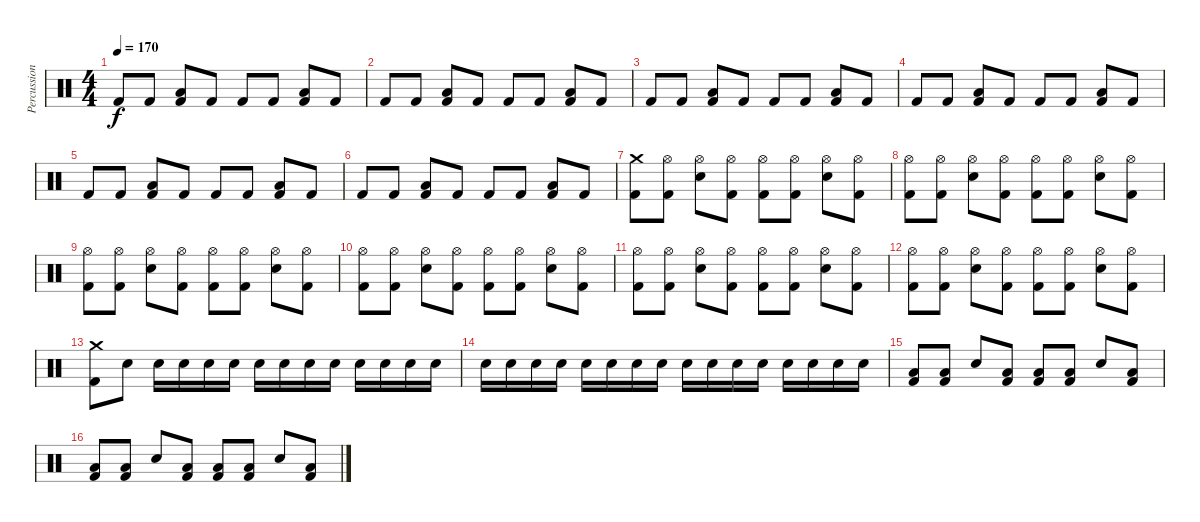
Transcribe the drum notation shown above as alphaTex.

\track ("Percussion" "Percussion") {instrument percussion}
\staff {score}
\articulation defaults
\ts (4 4)
\tempo 170
\clef neutral
\ks c "Kick (hit) 2".8{dy f} "Kick (hit) 2".8
("Low Floor Tom (hit)" "Kick (hit) 2").8 "Kick (hit) 2".8 "Kick (hit) 2".8 "Kick (hit) 2".8 ("Low Floor Tom (hit)" "Kick (hit) 2").8 "Kick (hit) 2".8 |
"Kick (hit) 2".8 "Kick (hit) 2".8 ("Low Floor Tom (hit)" "Kick (hit) 2").8 "Kick (hit) 2".8 "Kick (hit) 2".8 "Kick (hit) 2".8 ("Low Floor Tom (hit)" "Kick (hit) 2").8 "Kick (hit) 2".8 |
"Kick (hit) 2".8 "Kick (hit) 2".8 ("Low Floor Tom (hit)" "Kick (hit) 2").8 "Kick (hit) 2".8 "Kick (hit) 2".8 "Kick (hit) 2".8 ("Low Floor Tom (hit)" "Kick (hit) 2").8 "Kick (hit) 2".8 |
"Kick (hit) 2".8 "Kick (hit) 2".8 ("Low Floor Tom (hit)" "Kick (hit) 2").8 "Kick (hit) 2".8 "Kick (hit) 2".8 "Kick (hit) 2".8 ("Low Floor Tom (hit)" "Kick (hit) 2").8 "Kick (hit) 2".8 |
"Kick (hit) 2".8 "Kick (hit) 2".8 ("Low Floor Tom (hit)" "Kick (hit) 2").8 "Kick (hit) 2".8 "Kick (hit) 2".8 "Kick (hit) 2".8 ("Low Floor Tom (hit)" "Kick (hit) 2").8 "Kick (hit) 2".8 |
"Kick (hit) 2".8 "Kick (hit) 2".8 ("Low Floor Tom (hit)" "Kick (hit) 2").8 "Kick (hit) 2".8 "Kick (hit) 2".8 "Kick (hit) 2".8 ("Low Floor Tom (hit)" "Kick (hit) 2").8 "Kick (hit) 2".8 |
("Crash medium (hit)" "Kick (hit) 2").8 ("Hi-Hat (open)" "Kick (hit) 2").8 ("Hi-Hat (open)" "Snare (hit) 2").8 ("Hi-Hat (open)" "Kick (hit) 2").8 ("Hi-Hat (open)" "Kick (hit) 2").8 ("Hi-Hat (open)" "Kick (hit) 2").8 ("Hi-Hat (open)" "Snare (hit) 2").8 ("Hi-Hat (open)" "Kick (hit) 2").8 |
("Hi-Hat (open)" "Kick (hit) 2").8 ("Hi-Hat (open)" "Kick (hit) 2").8 ("Hi-Hat (open)" "Snare (hit) 2").8 ("Hi-Hat (open)" "Kick (hit) 2").8 ("Hi-Hat (open)" "Kick (hit) 2").8 ("Hi-Hat (open)" "Kick (hit) 2").8 ("Hi-Hat (open)" "Snare (hit) 2").8 ("Hi-Hat (open)" "Kick (hit) 2").8 |
("Hi-Hat (open)" "Kick (hit) 2").8 ("Hi-Hat (open)" "Kick (hit) 2").8 ("Hi-Hat (open)" "Snare (hit) 2").8 ("Hi-Hat (open)" "Kick (hit) 2").8 ("Hi-Hat (open)" "Kick (hit) 2").8 ("Hi-Hat (open)" "Kick (hit) 2").8 ("Hi-Hat (open)" "Snare (hit) 2").8 ("Hi-Hat (open)" "Kick (hit) 2").8 |
("Hi-Hat (open)" "Kick (hit) 2").8 ("Hi-Hat (open)" "Kick (hit) 2").8 ("Hi-Hat (open)" "Snare (hit) 2").8 ("Hi-Hat (open)" "Kick (hit) 2").8 ("Hi-Hat (open)" "Kick (hit) 2").8 ("Hi-Hat (open)" "Kick (hit) 2").8 ("Hi-Hat (open)" "Snare (hit) 2").8 ("Hi-Hat (open)" "Kick (hit) 2").8 |
("Hi-Hat (open)" "Kick (hit) 2").8 ("Hi-Hat (open)" "Kick (hit) 2").8 ("Hi-Hat (open)" "Snare (hit) 2").8 ("Hi-Hat (open)" "Kick (hit) 2").8 ("Hi-Hat (open)" "Kick (hit) 2").8 ("Hi-Hat (open)" "Kick (hit) 2").8 ("Hi-Hat (open)" "Snare (hit) 2").8 ("Hi-Hat (open)" "Kick (hit) 2").8 |
("Hi-Hat (open)" "Kick (hit) 2").8 ("Hi-Hat (open)" "Kick (hit) 2").8 ("Hi-Hat (open)" "Snare (hit) 2").8 ("Hi-Hat (open)" "Kick (hit) 2").8 ("Hi-Hat (open)" "Kick (hit) 2").8 ("Hi-Hat (open)" "Kick (hit) 2").8 ("Hi-Hat (open)" "Snare (hit) 2").8 ("Hi-Hat (open)" "Kick (hit) 2").8 |
("Crash medium (hit)" "Kick (hit) 2").8 "Snare (hit) 2".8 "Snare (hit) 2".16 "Snare (hit) 2".16 "Snare (hit) 2".16 "Snare (hit) 2".16 "Snare (hit) 2".16 "Snare (hit) 2".16 "Snare (hit) 2".16 "Snare (hit) 2".16 "Snare (hit) 2".16 "Snare (hit) 2".16 "Snare (hit) 2".16 "Snare (hit) 2".16 |
"Snare (hit) 2".16 "Snare (hit) 2".16 "Snare (hit) 2".16 "Snare (hit) 2".16 "Snare (hit) 2".16 "Snare (hit) 2".16 "Snare (hit) 2".16 "Snare (hit) 2".16 "Snare (hit) 2".16 "Snare (hit) 2".16 "Snare (hit) 2".16 "Snare (hit) 2".16 "Snare (hit) 2".16 "Snare (hit) 2".16 "Snare (hit) 2".16 "Snare (hit) 2".16 |
("Low Floor Tom (hit)" "Kick (hit) 2").8 ("Low Floor Tom (hit)" "Kick (hit) 2").8 "Snare (hit) 2".8 ("Low Floor Tom (hit)" "Kick (hit) 2").8 ("Low Floor Tom (hit)" "Kick (hit) 2").8 ("Low Floor Tom (hit)" "Kick (hit) 2").8 "Snare (hit) 2".8 ("Low Floor Tom (hit)" "Kick (hit) 2").8 |
("Low Floor Tom (hit)" "Kick (hit) 2").8 ("Low Floor Tom (hit)" "Kick (hit) 2").8 "Snare (hit) 2".8 ("Low Floor Tom (hit)" "Kick (hit) 2").8 ("Low Floor Tom (hit)" "Kick (hit) 2").8 ("Low Floor Tom (hit)" "Kick (hit) 2").8 "Snare (hit) 2".8 ("Low Floor Tom (hit)" "Kick (hit) 2").8
